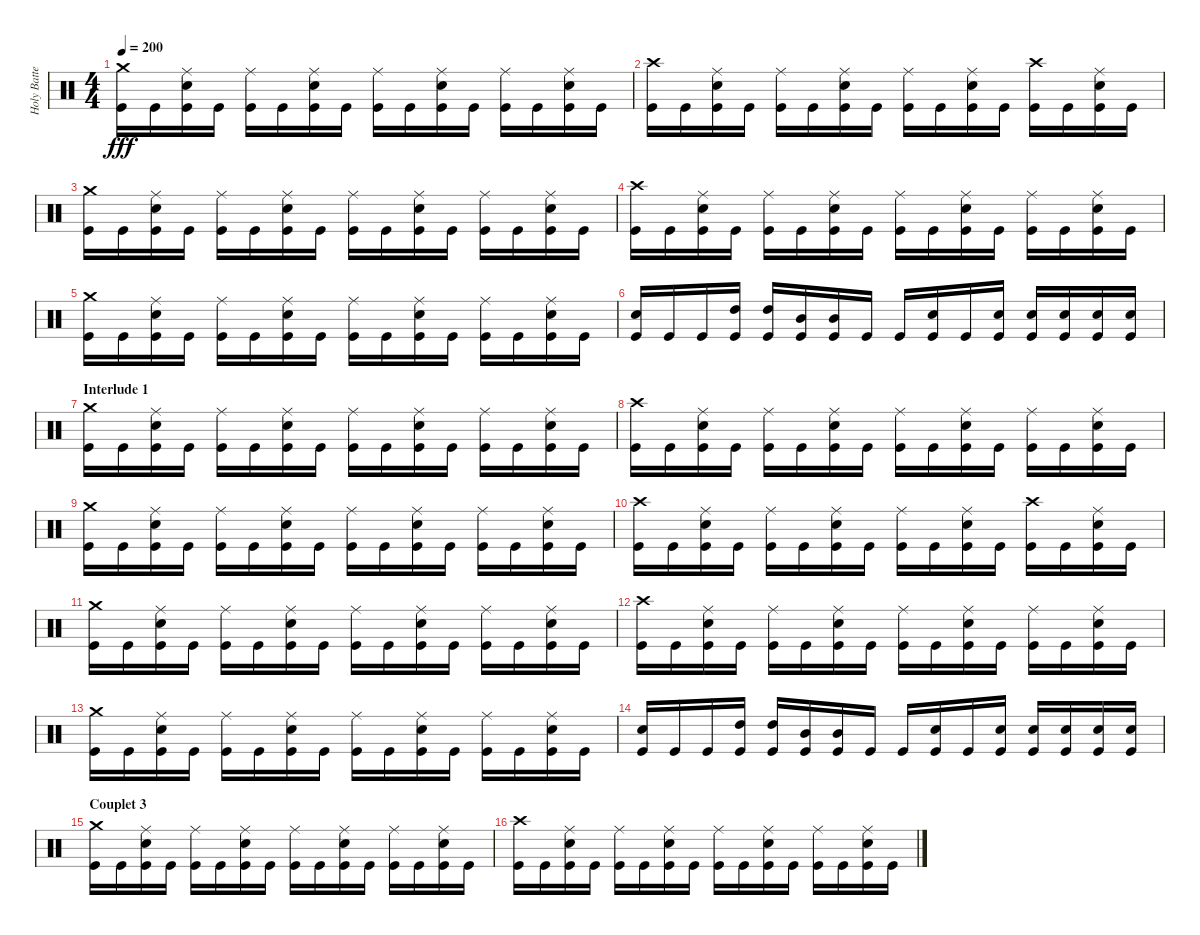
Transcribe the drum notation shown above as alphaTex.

\track ("Holy Batteur" "Holy Batte") {instrument percussion}
\staff {score}
\articulation defaults
\ts (4 4)
\tempo 200
\clef neutral
\ks c
("Crash medium (hit)" "Kick (hit)").16{dy fff} "Kick (hit)".16 ("Ride (middle)" "Electric Snare (hit)" "Kick (hit)").16 "Kick (hit)".16 ("Ride (middle)" "Kick (hit)").16 "Kick (hit)".16 ("Ride (middle)" "Electric Snare (hit)" "Kick (hit)").16 "Kick (hit)".16 ("Ride (middle)" "Kick (hit)").16 "Kick (hit)".16 ("Ride (middle)" "Electric Snare (hit)" "Kick (hit)").16 "Kick (hit)".16 ("Ride (middle)" "Kick (hit)").16 "Kick (hit)".16 ("Ride (middle)" "Electric Snare (hit)" "Kick (hit)").16 "Kick (hit)".16 |
("Crash high (hit)" "Kick (hit)").16 "Kick (hit)".16 ("Ride (middle)" "Electric Snare (hit)" "Kick (hit)").16 "Kick (hit)".16 ("Ride (middle)" "Kick (hit)").16 "Kick (hit)".16 ("Ride (middle)" "Electric Snare (hit)" "Kick (hit)").16 "Kick (hit)".16 ("Ride (middle)" "Kick (hit)").16 "Kick (hit)".16 ("Ride (middle)" "Electric Snare (hit)" "Kick (hit)").16 "Kick (hit)".16 ("Crash high (hit)" "Kick (hit)").16 "Kick (hit)".16 ("Ride (middle)" "Electric Snare (hit)" "Kick (hit)").16 "Kick (hit)".16 |
("Crash medium (hit)" "Kick (hit)").16 "Kick (hit)".16 ("Ride (middle)" "Electric Snare (hit)" "Kick (hit)").16 "Kick (hit)".16 ("Ride (middle)" "Kick (hit)").16 "Kick (hit)".16 ("Ride (middle)" "Electric Snare (hit)" "Kick (hit)").16 "Kick (hit)".16 ("Ride (middle)" "Kick (hit)").16 "Kick (hit)".16 ("Ride (middle)" "Electric Snare (hit)" "Kick (hit)").16 "Kick (hit)".16 ("Ride (middle)" "Kick (hit)").16 "Kick (hit)".16 ("Ride (middle)" "Electric Snare (hit)" "Kick (hit)").16 "Kick (hit)".16 |
("Crash high (hit)" "Kick (hit)").16 "Kick (hit)".16 ("Ride (middle)" "Electric Snare (hit)" "Kick (hit)").16 "Kick (hit)".16 ("Ride (middle)" "Kick (hit)").16 "Kick (hit)".16 ("Ride (middle)" "Electric Snare (hit)" "Kick (hit)").16 "Kick (hit)".16 ("Ride (middle)" "Kick (hit)").16 "Kick (hit)".16 ("Ride (middle)" "Electric Snare (hit)" "Kick (hit)").16 "Kick (hit)".16 ("Ride (middle)" "Kick (hit)").16 "Kick (hit)".16 ("Ride (middle)" "Electric Snare (hit)" "Kick (hit)").16 "Kick (hit)".16 |
("Crash medium (hit)" "Kick (hit)").16 "Kick (hit)".16 ("Ride (middle)" "Electric Snare (hit)" "Kick (hit)").16 "Kick (hit)".16 ("Ride (middle)" "Kick (hit)").16 "Kick (hit)".16 ("Ride (middle)" "Electric Snare (hit)" "Kick (hit)").16 "Kick (hit)".16 ("Ride (middle)" "Kick (hit)").16 "Kick (hit)".16 ("Ride (middle)" "Electric Snare (hit)" "Kick (hit)").16 "Kick (hit)".16 ("Ride (middle)" "Kick (hit)").16 "Kick (hit)".16 ("Ride (middle)" "Electric Snare (hit)" "Kick (hit)").16 "Kick (hit)".16 |
("Electric Snare (hit)" "Kick (hit)").16 "Kick (hit)".16 "Kick (hit)".16 ("High Tom (hit)" "Kick (hit)").16 ("High Tom (hit)" "Kick (hit)").16 ("Mid Tom (hit)" "Kick (hit)").16 ("Mid Tom (hit)" "Kick (hit)").16 "Kick (hit)".16 "Kick (hit)".16 ("Electric Snare (hit)" "Kick (hit)").16 "Kick (hit)".16 ("Electric Snare (hit)" "Kick (hit)").16 ("Electric Snare (hit)" "Kick (hit)").16 ("Electric Snare (hit)" "Kick (hit)").16 ("Electric Snare (hit)" "Kick (hit)").16 ("Electric Snare (hit)" "Kick (hit)").16 |
\section ("" "Interlude 1")
("Crash medium (hit)" "Kick (hit)").16 "Kick (hit)".16 ("Ride (middle)" "Electric Snare (hit)" "Kick (hit)").16 "Kick (hit)".16 ("Ride (middle)" "Kick (hit)").16 "Kick (hit)".16 ("Ride (middle)" "Electric Snare (hit)" "Kick (hit)").16 "Kick (hit)".16 ("Ride (middle)" "Kick (hit)").16 "Kick (hit)".16 ("Ride (middle)" "Electric Snare (hit)" "Kick (hit)").16 "Kick (hit)".16 ("Ride (middle)" "Kick (hit)").16 "Kick (hit)".16 ("Ride (middle)" "Electric Snare (hit)" "Kick (hit)").16 "Kick (hit)".16 |
("Crash high (hit)" "Kick (hit)").16 "Kick (hit)".16 ("Ride (middle)" "Electric Snare (hit)" "Kick (hit)").16 "Kick (hit)".16 ("Ride (middle)" "Kick (hit)").16 "Kick (hit)".16 ("Ride (middle)" "Electric Snare (hit)" "Kick (hit)").16 "Kick (hit)".16 ("Ride (middle)" "Kick (hit)").16 "Kick (hit)".16 ("Ride (middle)" "Electric Snare (hit)" "Kick (hit)").16 "Kick (hit)".16 ("Ride (middle)" "Kick (hit)").16 "Kick (hit)".16 ("Ride (middle)" "Electric Snare (hit)" "Kick (hit)").16 "Kick (hit)".16 |
("Crash medium (hit)" "Kick (hit)").16 "Kick (hit)".16 ("Ride (middle)" "Electric Snare (hit)" "Kick (hit)").16 "Kick (hit)".16 ("Ride (middle)" "Kick (hit)").16 "Kick (hit)".16 ("Ride (middle)" "Electric Snare (hit)" "Kick (hit)").16 "Kick (hit)".16 ("Ride (middle)" "Kick (hit)").16 "Kick (hit)".16 ("Ride (middle)" "Electric Snare (hit)" "Kick (hit)").16 "Kick (hit)".16 ("Ride (middle)" "Kick (hit)").16 "Kick (hit)".16 ("Ride (middle)" "Electric Snare (hit)" "Kick (hit)").16 "Kick (hit)".16 |
("Crash high (hit)" "Kick (hit)").16 "Kick (hit)".16 ("Ride (middle)" "Electric Snare (hit)" "Kick (hit)").16 "Kick (hit)".16 ("Ride (middle)" "Kick (hit)").16 "Kick (hit)".16 ("Ride (middle)" "Electric Snare (hit)" "Kick (hit)").16 "Kick (hit)".16 ("Ride (middle)" "Kick (hit)").16 "Kick (hit)".16 ("Ride (middle)" "Electric Snare (hit)" "Kick (hit)").16 "Kick (hit)".16 ("Crash high (hit)" "Kick (hit)").16 "Kick (hit)".16 ("Ride (middle)" "Electric Snare (hit)" "Kick (hit)").16 "Kick (hit)".16 |
("Crash medium (hit)" "Kick (hit)").16 "Kick (hit)".16 ("Ride (middle)" "Electric Snare (hit)" "Kick (hit)").16 "Kick (hit)".16 ("Ride (middle)" "Kick (hit)").16 "Kick (hit)".16 ("Ride (middle)" "Electric Snare (hit)" "Kick (hit)").16 "Kick (hit)".16 ("Ride (middle)" "Kick (hit)").16 "Kick (hit)".16 ("Ride (middle)" "Electric Snare (hit)" "Kick (hit)").16 "Kick (hit)".16 ("Ride (middle)" "Kick (hit)").16 "Kick (hit)".16 ("Ride (middle)" "Electric Snare (hit)" "Kick (hit)").16 "Kick (hit)".16 |
("Crash high (hit)" "Kick (hit)").16 "Kick (hit)".16 ("Ride (middle)" "Electric Snare (hit)" "Kick (hit)").16 "Kick (hit)".16 ("Ride (middle)" "Kick (hit)").16 "Kick (hit)".16 ("Ride (middle)" "Electric Snare (hit)" "Kick (hit)").16 "Kick (hit)".16 ("Ride (middle)" "Kick (hit)").16 "Kick (hit)".16 ("Ride (middle)" "Electric Snare (hit)" "Kick (hit)").16 "Kick (hit)".16 ("Ride (middle)" "Kick (hit)").16 "Kick (hit)".16 ("Ride (middle)" "Electric Snare (hit)" "Kick (hit)").16 "Kick (hit)".16 |
("Crash medium (hit)" "Kick (hit)").16 "Kick (hit)".16 ("Ride (middle)" "Electric Snare (hit)" "Kick (hit)").16 "Kick (hit)".16 ("Ride (middle)" "Kick (hit)").16 "Kick (hit)".16 ("Ride (middle)" "Electric Snare (hit)" "Kick (hit)").16 "Kick (hit)".16 ("Ride (middle)" "Kick (hit)").16 "Kick (hit)".16 ("Ride (middle)" "Electric Snare (hit)" "Kick (hit)").16 "Kick (hit)".16 ("Ride (middle)" "Kick (hit)").16 "Kick (hit)".16 ("Ride (middle)" "Electric Snare (hit)" "Kick (hit)").16 "Kick (hit)".16 |
("Electric Snare (hit)" "Kick (hit)").16 "Kick (hit)".16 "Kick (hit)".16 ("High Tom (hit)" "Kick (hit)").16 ("High Tom (hit)" "Kick (hit)").16 ("Mid Tom (hit)" "Kick (hit)").16 ("Mid Tom (hit)" "Kick (hit)").16 "Kick (hit)".16 "Kick (hit)".16 ("Electric Snare (hit)" "Kick (hit)").16 "Kick (hit)".16 ("Electric Snare (hit)" "Kick (hit)").16 ("Electric Snare (hit)" "Kick (hit)").16 ("Electric Snare (hit)" "Kick (hit)").16 ("Electric Snare (hit)" "Kick (hit)").16 ("Electric Snare (hit)" "Kick (hit)").16 |
\section ("" "Couplet 3")
("Crash medium (hit)" "Kick (hit)").16 "Kick (hit)".16 ("Ride (middle)" "Electric Snare (hit)" "Kick (hit)").16 "Kick (hit)".16 ("Ride (middle)" "Kick (hit)").16 "Kick (hit)".16 ("Ride (middle)" "Electric Snare (hit)" "Kick (hit)").16 "Kick (hit)".16 ("Ride (middle)" "Kick (hit)").16 "Kick (hit)".16 ("Ride (middle)" "Electric Snare (hit)" "Kick (hit)").16 "Kick (hit)".16 ("Ride (middle)" "Kick (hit)").16 "Kick (hit)".16 ("Ride (middle)" "Electric Snare (hit)" "Kick (hit)").16 "Kick (hit)".16 |
("Crash high (hit)" "Kick (hit)").16 "Kick (hit)".16 ("Ride (middle)" "Electric Snare (hit)" "Kick (hit)").16 "Kick (hit)".16 ("Ride (middle)" "Kick (hit)").16 "Kick (hit)".16 ("Ride (middle)" "Electric Snare (hit)" "Kick (hit)").16 "Kick (hit)".16 ("Ride (middle)" "Kick (hit)").16 "Kick (hit)".16 ("Ride (middle)" "Electric Snare (hit)" "Kick (hit)").16 "Kick (hit)".16 ("Ride (middle)" "Kick (hit)").16 "Kick (hit)".16 ("Ride (middle)" "Electric Snare (hit)" "Kick (hit)").16 "Kick (hit)".16
